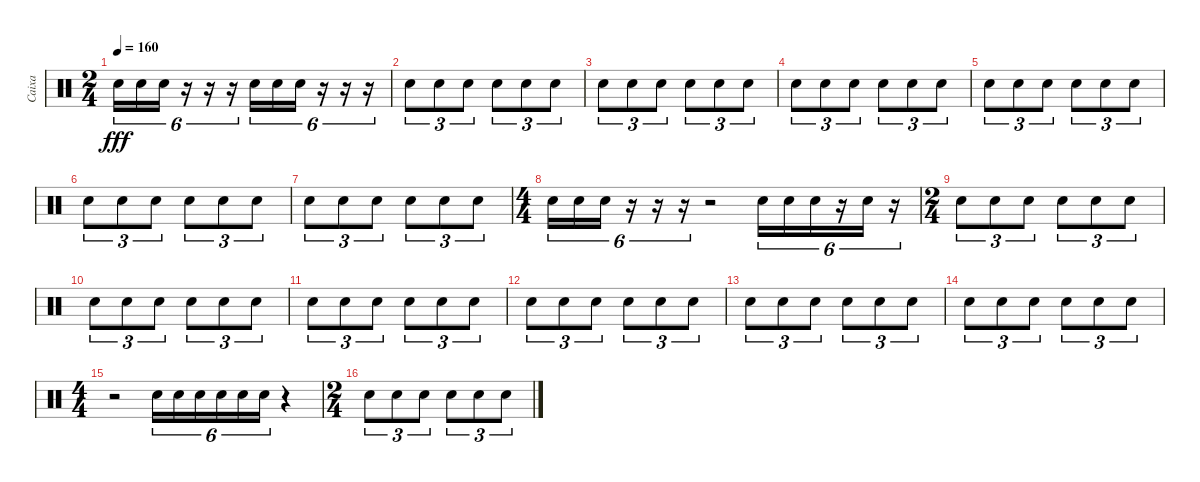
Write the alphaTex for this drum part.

\track ("Caixa" "Caixa") {instrument percussion}
\staff {score}
\articulation defaults
\ts (2 4)
\tempo 160
\clef neutral
\ks c "Electric Snare (hit)".16{tu (6 4) dy fff} "Electric Snare (hit)".16{tu (6 4)} "Electric Snare (hit)".16{tu (6 4)}
r.16{tu (6 4)} r.16{tu (6 4)} r.16{tu (6 4)} "Electric Snare (hit)".16{tu (6 4)} "Electric Snare (hit)".16{tu (6 4)} "Electric Snare (hit)".16{tu (6 4)} r.16{tu (6 4)} r.16{tu (6 4)} r.16{tu (6 4)} |
"Electric Snare (hit)".8{tu (3 2)} "Electric Snare (hit)".8{tu (3 2)} "Electric Snare (hit)".8{tu (3 2)} "Electric Snare (hit)".8{tu (3 2)} "Electric Snare (hit)".8{tu (3 2)} "Electric Snare (hit)".8{tu (3 2)} |
"Electric Snare (hit)".8{tu (3 2)} "Electric Snare (hit)".8{tu (3 2)} "Electric Snare (hit)".8{tu (3 2)} "Electric Snare (hit)".8{tu (3 2)} "Electric Snare (hit)".8{tu (3 2)} "Electric Snare (hit)".8{tu (3 2)} |
"Electric Snare (hit)".8{tu (3 2)} "Electric Snare (hit)".8{tu (3 2)} "Electric Snare (hit)".8{tu (3 2)} "Electric Snare (hit)".8{tu (3 2)} "Electric Snare (hit)".8{tu (3 2)} "Electric Snare (hit)".8{tu (3 2)} |
"Electric Snare (hit)".8{tu (3 2)} "Electric Snare (hit)".8{tu (3 2)} "Electric Snare (hit)".8{tu (3 2)} "Electric Snare (hit)".8{tu (3 2)} "Electric Snare (hit)".8{tu (3 2)} "Electric Snare (hit)".8{tu (3 2)} |
"Electric Snare (hit)".8{tu (3 2)} "Electric Snare (hit)".8{tu (3 2)} "Electric Snare (hit)".8{tu (3 2)} "Electric Snare (hit)".8{tu (3 2)} "Electric Snare (hit)".8{tu (3 2)} "Electric Snare (hit)".8{tu (3 2)} |
"Electric Snare (hit)".8{tu (3 2)} "Electric Snare (hit)".8{tu (3 2)} "Electric Snare (hit)".8{tu (3 2)} "Electric Snare (hit)".8{tu (3 2)} "Electric Snare (hit)".8{tu (3 2)} "Electric Snare (hit)".8{tu (3 2)} |
\ts (4 4)
"Electric Snare (hit)".16{tu (6 4)} "Electric Snare (hit)".16{tu (6 4)} "Electric Snare (hit)".16{tu (6 4)} r.16{tu (6 4)} r.16{tu (6 4)} r.16{tu (6 4)} r.2 "Electric Snare (hit)".16{tu (6 4)} "Electric Snare (hit)".16{tu (6 4)} "Electric Snare (hit)".16{tu (6 4)} r.16{tu (6 4)} "Electric Snare (hit)".16{tu (6 4)} r.16{tu (6 4)} |
\ts (2 4)
"Electric Snare (hit)".8{tu (3 2)} "Electric Snare (hit)".8{tu (3 2)} "Electric Snare (hit)".8{tu (3 2)} "Electric Snare (hit)".8{tu (3 2)} "Electric Snare (hit)".8{tu (3 2)} "Electric Snare (hit)".8{tu (3 2)} |
"Electric Snare (hit)".8{tu (3 2)} "Electric Snare (hit)".8{tu (3 2)} "Electric Snare (hit)".8{tu (3 2)} "Electric Snare (hit)".8{tu (3 2)} "Electric Snare (hit)".8{tu (3 2)} "Electric Snare (hit)".8{tu (3 2)} |
"Electric Snare (hit)".8{tu (3 2)} "Electric Snare (hit)".8{tu (3 2)} "Electric Snare (hit)".8{tu (3 2)} "Electric Snare (hit)".8{tu (3 2)} "Electric Snare (hit)".8{tu (3 2)} "Electric Snare (hit)".8{tu (3 2)} |
"Electric Snare (hit)".8{tu (3 2)} "Electric Snare (hit)".8{tu (3 2)} "Electric Snare (hit)".8{tu (3 2)} "Electric Snare (hit)".8{tu (3 2)} "Electric Snare (hit)".8{tu (3 2)} "Electric Snare (hit)".8{tu (3 2)} |
"Electric Snare (hit)".8{tu (3 2)} "Electric Snare (hit)".8{tu (3 2)} "Electric Snare (hit)".8{tu (3 2)} "Electric Snare (hit)".8{tu (3 2)} "Electric Snare (hit)".8{tu (3 2)} "Electric Snare (hit)".8{tu (3 2)} |
"Electric Snare (hit)".8{tu (3 2)} "Electric Snare (hit)".8{tu (3 2)} "Electric Snare (hit)".8{tu (3 2)} "Electric Snare (hit)".8{tu (3 2)} "Electric Snare (hit)".8{tu (3 2)} "Electric Snare (hit)".8{tu (3 2)} |
\ts (4 4)
r.2 "Electric Snare (hit)".16{tu (6 4)} "Electric Snare (hit)".16{tu (6 4)} "Electric Snare (hit)".16{tu (6 4)} "Electric Snare (hit)".16{tu (6 4)} "Electric Snare (hit)".16{tu (6 4)} "Electric Snare (hit)".16{tu (6 4)} r.4 |
\ts (2 4)
"Electric Snare (hit)".8{tu (3 2)} "Electric Snare (hit)".8{tu (3 2)} "Electric Snare (hit)".8{tu (3 2)} "Electric Snare (hit)".8{tu (3 2)} "Electric Snare (hit)".8{tu (3 2)} "Electric Snare (hit)".8{tu (3 2)}
